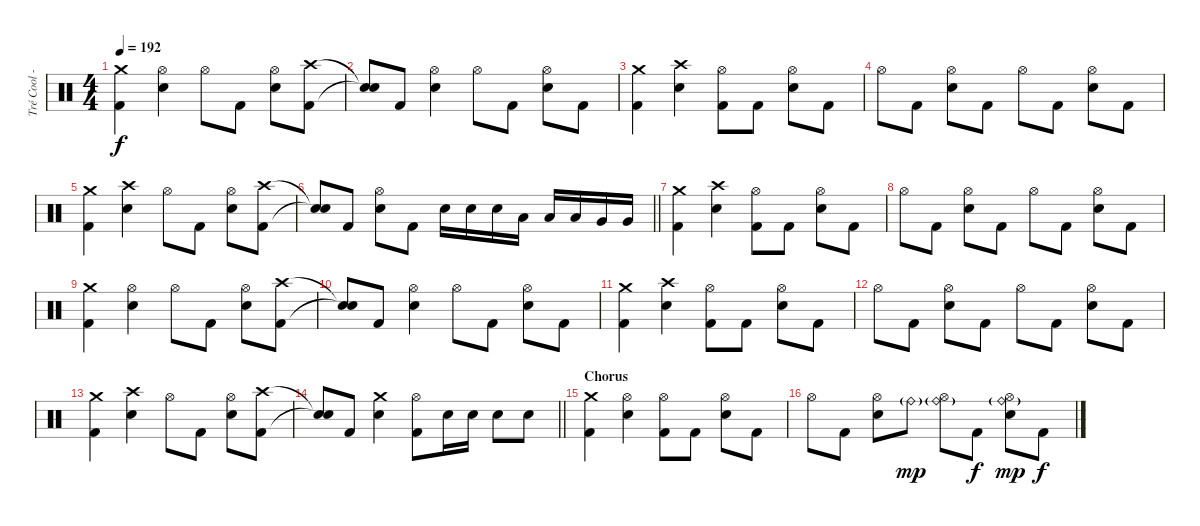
\track ("Tré Cool - Drums" "Tré Cool -") {instrument percussion}
\staff {score}
\articulation defaults
\ts (4 4)
\tempo 192
\clef neutral
\ks c
("Crash medium (hit)" "Kick (hit) 2").4{dy f} ("Hi-Hat (open)" "Electric Snare (hit)").4 "Hi-Hat (open)".8 "Kick (hit) 2".8 ("Hi-Hat (open)" "Electric Snare (hit)").8 ("Crash high (hit)" "Kick (hit) 2").8 |
("Snare (hit)"{t} "Snare (hit)"{t}).8 "Kick (hit) 2".8 ("Hi-Hat (open)" "Electric Snare (hit)").4 "Hi-Hat (open)".8 "Kick (hit) 2".8 ("Hi-Hat (open)" "Electric Snare (hit)").8 "Kick (hit) 2".8 |
("Crash medium (hit)" "Kick (hit) 2").4 ("Crash high (hit)" "Electric Snare (hit)").4 ("Hi-Hat (open)" "Kick (hit) 2").8 "Kick (hit) 2".8 ("Hi-Hat (open)" "Electric Snare (hit)").8 "Kick (hit) 2".8 |
"Hi-Hat (open)".8 "Kick (hit) 2".8 ("Hi-Hat (open)" "Electric Snare (hit)").8 "Kick (hit) 2".8 "Hi-Hat (open)".8 "Kick (hit) 2".8 ("Hi-Hat (open)" "Electric Snare (hit)").8 "Kick (hit) 2".8 |
("Crash medium (hit)" "Kick (hit) 2").4 ("Crash high (hit)" "Electric Snare (hit)").4 "Hi-Hat (open)".8 "Kick (hit) 2".8 ("Hi-Hat (open)" "Electric Snare (hit)").8 ("Crash high (hit)" "Kick (hit) 2").8 |
\barLineRight lightlight
("Snare (hit)"{t} "Snare (hit)"{t}).8 "Kick (hit) 2".8 ("Hi-Hat (open)" "Electric Snare (hit)").8 "Kick (hit) 2".8 "Electric Snare (hit)".16 "Electric Snare (hit)".16 "Electric Snare (hit)".16 "Low Tom (hit)".16 "Low Tom (hit)".16 "Low Tom (hit)".16 "Very Low Tom (hit)".16 "Very Low Tom (hit)".16 |
("Crash medium (hit)" "Kick (hit) 2").4 ("Crash high (hit)" "Electric Snare (hit)").4 ("Hi-Hat (open)" "Kick (hit) 2").8 "Kick (hit) 2".8 ("Hi-Hat (open)" "Electric Snare (hit)").8 "Kick (hit) 2".8 |
"Hi-Hat (open)".8 "Kick (hit) 2".8 ("Hi-Hat (open)" "Electric Snare (hit)").8 "Kick (hit) 2".8 "Hi-Hat (open)".8 "Kick (hit) 2".8 ("Hi-Hat (open)" "Electric Snare (hit)").8 "Kick (hit) 2".8 |
("Crash medium (hit)" "Kick (hit) 2").4 ("Hi-Hat (open)" "Electric Snare (hit)").4 "Hi-Hat (open)".8 "Kick (hit) 2".8 ("Hi-Hat (open)" "Electric Snare (hit)").8 ("Crash high (hit)" "Kick (hit) 2").8 |
("Snare (hit)"{t} "Snare (hit)"{t}).8 "Kick (hit) 2".8 ("Hi-Hat (open)" "Electric Snare (hit)").4 "Hi-Hat (open)".8 "Kick (hit) 2".8 ("Hi-Hat (open)" "Electric Snare (hit)").8 "Kick (hit) 2".8 |
("Crash medium (hit)" "Kick (hit) 2").4 ("Crash high (hit)" "Electric Snare (hit)").4 ("Hi-Hat (open)" "Kick (hit) 2").8 "Kick (hit) 2".8 ("Hi-Hat (open)" "Electric Snare (hit)").8 "Kick (hit) 2".8 |
"Hi-Hat (open)".8 "Kick (hit) 2".8 ("Hi-Hat (open)" "Electric Snare (hit)").8 "Kick (hit) 2".8 "Hi-Hat (open)".8 "Kick (hit) 2".8 ("Hi-Hat (open)" "Electric Snare (hit)").8 "Kick (hit) 2".8 |
("Crash medium (hit)" "Kick (hit) 2").4 ("Crash high (hit)" "Electric Snare (hit)").4 "Hi-Hat (open)".8 "Kick (hit) 2".8 ("Hi-Hat (open)" "Electric Snare (hit)").8 ("Crash high (hit)" "Kick (hit) 2").8 |
\barLineRight lightlight
("Snare (hit)"{t} "Snare (hit)"{t}).8 "Kick (hit) 2".8 ("Crash medium (hit)" "Electric Snare (hit)").4 ("Hi-Hat (open)" "Kick (hit) 2").8 "Electric Snare (hit)".16 "Electric Snare (hit)".16 "Electric Snare (hit)".8 "Electric Snare (hit)".8 |
\section ("" "Chorus")
("Crash medium (hit)" "Kick (hit) 2").4 ("Hi-Hat (open)" "Electric Snare (hit)").4 ("Hi-Hat (open)" "Kick (hit) 2").8 "Kick (hit) 2".8 ("Hi-Hat (open)" "Electric Snare (hit)").8 "Kick (hit) 2".8 |
"Hi-Hat (open)".8 "Kick (hit) 2".8 ("Hi-Hat (open)" "Electric Snare (hit)").8 "Ride (bell)"{g}.8{dy mp} ("Hi-Hat (open)" "Ride (bell)"{g}).8 "Kick (hit) 2".8{dy f} ("Hi-Hat (open)" "Ride (bell)"{g} "Electric Snare (hit)").8{dy mp} "Kick (hit) 2".8{dy f}
